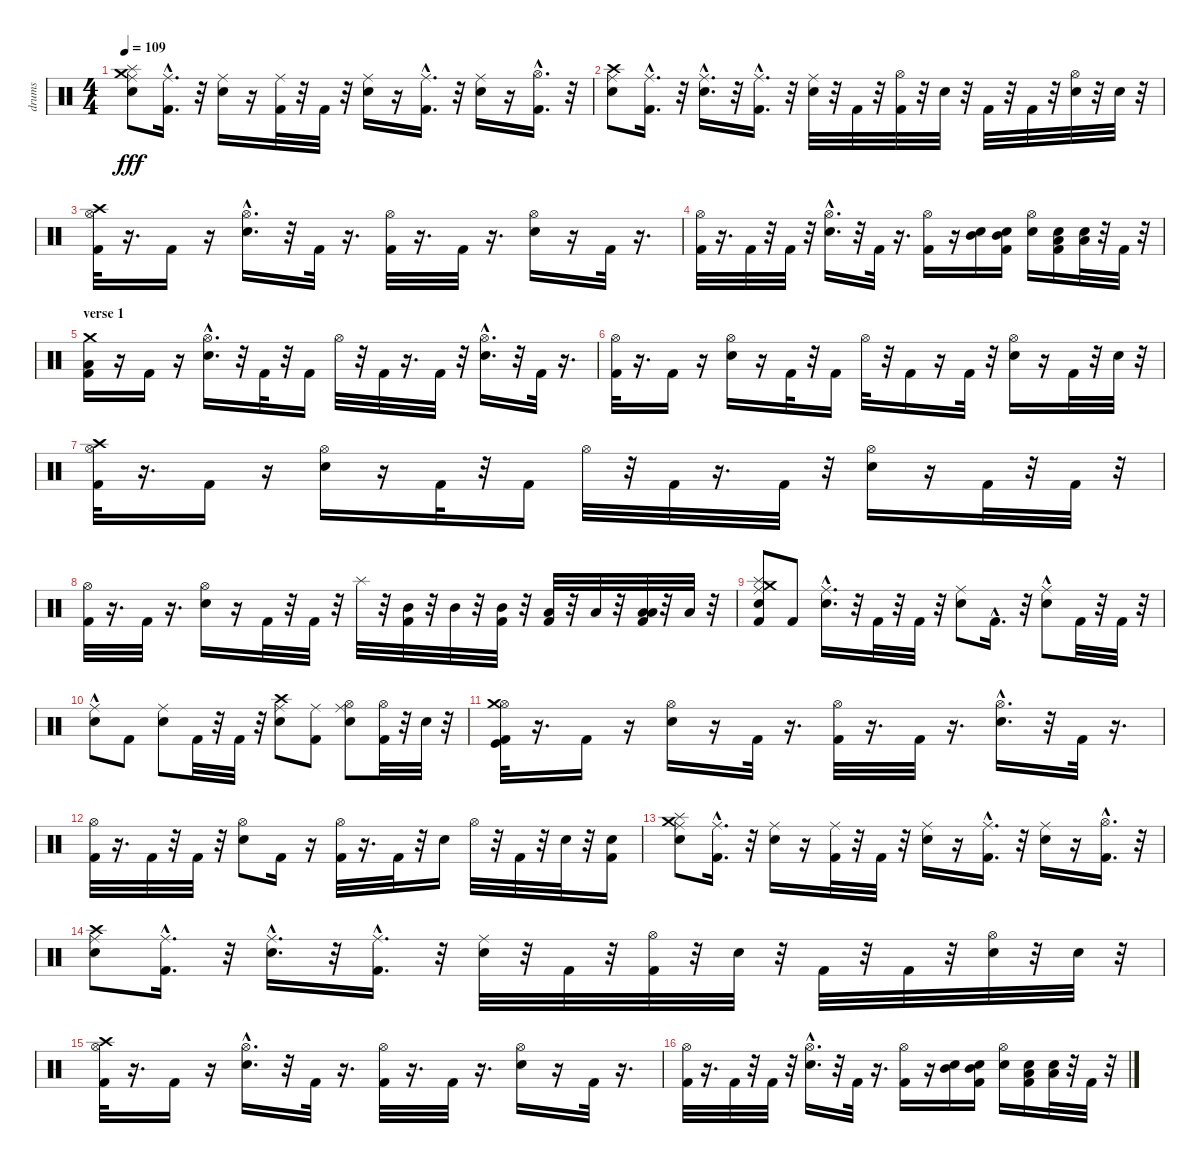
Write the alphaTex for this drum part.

\track ("drums" "drums") {instrument percussion}
\staff {score}
\articulation defaults
\ts (4 4)
\tempo 109
\clef neutral
\ks c
("Snare (hit) 2" "Ride (middle)" "Splash (hit)" "Crash medium (hit)").8{dy fff} ("Kick (hit) 2"{hac} "Ride (middle)").16{d} r.32 ("Snare (hit) 2" "Ride (middle)").16 r.16 ("Kick (hit) 2" "Ride (middle)").32 r.32 "Kick (hit) 2".32 r.32 ("Snare (hit) 2" "Ride (middle)").16 r.16 ("Kick (hit) 2"{hac} "Ride (middle)").16{d} r.32 ("Snare (hit) 2" "Ride (middle)").16 r.16 ("Kick (hit) 2" "Hi-Hat (open)"{hac}).16{d} r.32 |
("Snare (hit) 2" "Crash high (hit)" "Ride (middle)").8 ("Kick (hit) 2"{hac} "Ride (middle)").16{d} r.32 ("Snare (hit) 2"{hac} "Ride (middle)").16{d} r.32 ("Kick (hit) 2"{hac} "Ride (middle)").16{d} r.32 ("Snare (hit) 2" "Ride (middle)").32 r.32 "Kick (hit) 2".32 r.32 ("Kick (hit) 2" "Hi-Hat (open)").32 r.32 "Snare (hit) 2".32 r.32 "Kick (hit) 2".32 r.32 "Kick (hit) 2".32 r.32 ("Snare (hit) 2" "Hi-Hat (open)").32 r.32 "Snare (hit) 2".32 r.32 |
("Kick (hit) 2" "Hi-Hat (open)" "Crash high (hit)").32 r.16{d} "Kick (hit) 2".16 r.16 ("Snare (hit) 2"{hac} "Hi-Hat (open)").16{d} r.32 "Kick (hit) 2".32 r.16{d} ("Kick (hit) 2" "Hi-Hat (open)").32 r.16{d} "Kick (hit) 2".32 r.16{d} ("Snare (hit) 2" "Hi-Hat (open)").16 r.16 "Kick (hit) 2".32 r.16{d} |
("Kick (hit) 2" "Hi-Hat (open)").32 r.16{d} "Kick (hit) 2".32 r.32 "Kick (hit) 2".32 r.32 ("Snare (hit) 2"{hac} "Hi-Hat (open)").16{d} r.32 "Kick (hit) 2".32 r.16{d} ("Kick (hit) 2" "Hi-Hat (open)").16 r.16 ("Snare (hit) 2" "Mid Tom (hit)").16 ("Kick (hit) 2" "Snare (hit) 2" "Mid Tom (hit)").16 ("Snare (hit) 2" "Hi-Hat (open)").16 ("Kick (hit) 2" "Snare (hit) 2" "Low Tom (hit)").16 ("Snare (hit) 2" "Low Floor Tom (hit)").32 r.32 "Kick (hit) 2".32 r.32 |
\section ("" "verse 1")
("Kick (hit) 2" "Low Floor Tom (hit)" "Crash medium (hit)").16 r.16 "Kick (hit) 2".16 r.16 ("Snare (hit) 2"{hac} "Hi-Hat (open)").16{d} r.32 "Kick (hit) 2".32 r.32 "Kick (hit) 2".16 "Hi-Hat (open)".32 r.32 "Kick (hit) 2".32 r.16{d} "Kick (hit) 2".32 r.32 ("Snare (hit) 2"{hac} "Hi-Hat (open)").16{d} r.32 "Kick (hit) 2".32 r.16{d} |
("Kick (hit) 2" "Hi-Hat (open)").32 r.16{d} "Kick (hit) 2".16 r.16 ("Snare (hit) 2" "Hi-Hat (open)").16 r.16 "Kick (hit) 2".32 r.32 "Kick (hit) 2".16 "Hi-Hat (open)".32 r.32 "Kick (hit) 2".16 r.16 "Kick (hit) 2".32 r.32 ("Snare (hit) 2" "Hi-Hat (open)").16 r.16 "Kick (hit) 2".32 r.32 "Snare (hit) 2".32 r.32 |
("Kick (hit) 2" "Hi-Hat (open)" "Crash high (hit)").32 r.16{d} "Kick (hit) 2".16 r.16 ("Snare (hit) 2" "Hi-Hat (open)").16 r.16 "Kick (hit) 2".32 r.32 "Kick (hit) 2".16 "Hi-Hat (open)".32 r.32 "Kick (hit) 2".32 r.16{d} "Kick (hit) 2".32 r.32 ("Snare (hit) 2" "Hi-Hat (open)").16 r.16 "Kick (hit) 2".32 r.32 "Kick (hit) 2".32 r.32 |
("Kick (hit) 2" "Hi-Hat (open)").32 r.16{d} "Kick (hit) 2".32 r.16{d} ("Snare (hit) 2" "Hi-Hat (open)").16 r.16 "Kick (hit) 2".32 r.32 "Kick (hit) 2".32 r.32 "Splash (hit)".32 r.32 ("Kick (hit) 2" "Mid Tom (hit)").32 r.32 "Mid Tom (hit)".32 r.32 ("Kick (hit) 2" "Mid Tom (hit)").32 r.32 ("Kick (hit) 2" "Low Tom (hit)").32 r.32 "Low Tom (hit)".32 r.32 ("Kick (hit) 2" "Low Floor Tom (hit)" "Low Floor Tom (hit)").32 r.32 "Low Floor Tom (hit)".32 r.32 |
("Kick (hit) 2" "Snare (hit) 2" "Ride (middle)" "Splash (hit)" "Crash medium (hit)").8 "Kick (hit) 2".8 ("Snare (hit) 2"{hac} "Ride (middle)"{hac}).16{d} r.32 "Kick (hit) 2".32 r.32 "Kick (hit) 2".32 r.32 ("Snare (hit) 2" "Ride (middle)").8 "Kick (hit) 2"{hac}.16{d} r.32 ("Snare (hit) 2" "Ride (middle)"{hac}).8 "Kick (hit) 2".32 r.32 "Kick (hit) 2".32 r.32 |
("Snare (hit) 2" "Ride (middle)"{hac}).8 "Kick (hit) 2".8 ("Snare (hit) 2" "Ride (middle)").8 "Kick (hit) 2".32 r.32 "Kick (hit) 2".32 r.32 ("Snare (hit) 2" "Crash high (hit)" "Ride (middle)").8 ("Kick (hit) 2" "Ride (middle)").8 ("Snare (hit) 2" "Hi-Hat (open)" "Ride (middle)").8 ("Kick (hit) 2" "Hi-Hat (open)").32 r.32 "Snare (hit) 2".32 r.32 |
("Kick (hit)" "Kick (hit) 2" "Hi-Hat (open)" "Crash medium (hit)").32 r.16{d} "Kick (hit) 2".16 r.16 ("Snare (hit) 2" "Hi-Hat (open)").16 r.16 "Kick (hit) 2".32 r.16{d} ("Kick (hit) 2" "Hi-Hat (open)").32 r.16{d} "Kick (hit) 2".32 r.16{d} ("Snare (hit) 2"{hac} "Hi-Hat (open)").16{d} r.32 "Kick (hit) 2".32 r.16{d} |
("Kick (hit) 2" "Hi-Hat (open)").32 r.16{d} "Kick (hit) 2".32 r.32 "Kick (hit) 2".32 r.32 ("Snare (hit) 2" "Hi-Hat (open)").8 "Kick (hit) 2".16 r.16 ("Kick (hit) 2" "Hi-Hat (open)").32 r.16{d} "Kick (hit) 2".32 r.32 "Snare (hit) 2".16 "Hi-Hat (open)".32 r.32 "Kick (hit) 2".32 r.32 "Snare (hit) 2".32 r.32 ("Kick (hit) 2" "Snare (hit) 2").16 |
("Snare (hit) 2" "Ride (middle)" "Splash (hit)" "Crash medium (hit)").8 ("Kick (hit) 2"{hac} "Ride (middle)").16{d} r.32 ("Snare (hit) 2" "Ride (middle)").16 r.16 ("Kick (hit) 2" "Ride (middle)").32 r.32 "Kick (hit) 2".32 r.32 ("Snare (hit) 2" "Ride (middle)").16 r.16 ("Kick (hit) 2"{hac} "Ride (middle)").16{d} r.32 ("Snare (hit) 2" "Ride (middle)").16 r.16 ("Kick (hit) 2" "Hi-Hat (open)"{hac}).16{d} r.32 |
("Snare (hit) 2" "Crash high (hit)" "Ride (middle)").8 ("Kick (hit) 2"{hac} "Ride (middle)").16{d} r.32 ("Snare (hit) 2"{hac} "Ride (middle)").16{d} r.32 ("Kick (hit) 2"{hac} "Ride (middle)").16{d} r.32 ("Snare (hit) 2" "Ride (middle)").32 r.32 "Kick (hit) 2".32 r.32 ("Kick (hit) 2" "Hi-Hat (open)").32 r.32 "Snare (hit) 2".32 r.32 "Kick (hit) 2".32 r.32 "Kick (hit) 2".32 r.32 ("Snare (hit) 2" "Hi-Hat (open)").32 r.32 "Snare (hit) 2".32 r.32 |
("Kick (hit) 2" "Hi-Hat (open)" "Crash high (hit)").32 r.16{d} "Kick (hit) 2".16 r.16 ("Snare (hit) 2"{hac} "Hi-Hat (open)").16{d} r.32 "Kick (hit) 2".32 r.16{d} ("Kick (hit) 2" "Hi-Hat (open)").32 r.16{d} "Kick (hit) 2".32 r.16{d} ("Snare (hit) 2" "Hi-Hat (open)").16 r.16 "Kick (hit) 2".32 r.16{d} |
("Kick (hit) 2" "Hi-Hat (open)").32 r.16{d} "Kick (hit) 2".32 r.32 "Kick (hit) 2".32 r.32 ("Snare (hit) 2"{hac} "Hi-Hat (open)").16{d} r.32 "Kick (hit) 2".32 r.16{d} ("Kick (hit) 2" "Hi-Hat (open)").16 r.16 ("Snare (hit) 2" "Mid Tom (hit)").16 ("Kick (hit) 2" "Snare (hit) 2" "Mid Tom (hit)").16 ("Snare (hit) 2" "Hi-Hat (open)").16 ("Kick (hit) 2" "Snare (hit) 2" "Low Tom (hit)").16 ("Snare (hit) 2" "Low Floor Tom (hit)").32 r.32 "Kick (hit) 2".32 r.32
